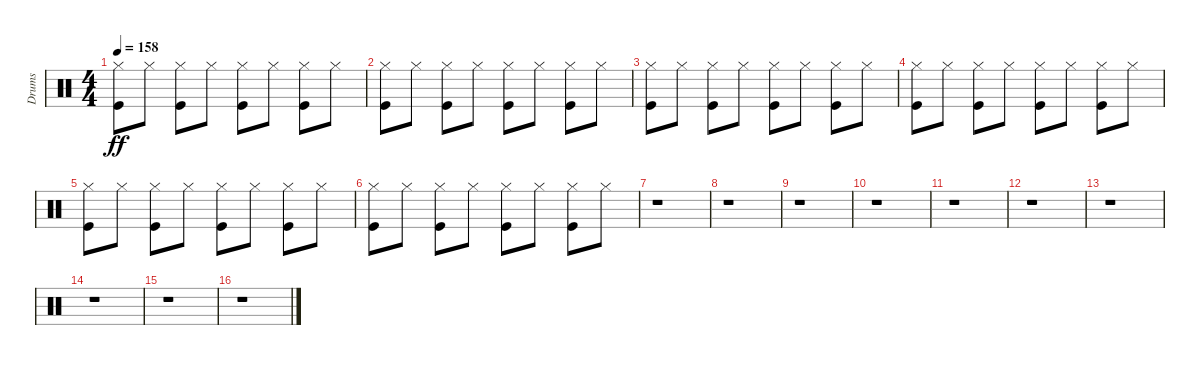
\track ("Drums" "Drums") {instrument percussion}
\staff {score}
\articulation defaults
\ts (4 4)
\tempo 158
\clef neutral
\ks c
("Kick (hit)" "Hi-Hat (closed)").8{dy ff} "Hi-Hat (closed)".8 ("Kick (hit)" "Hi-Hat (closed)").8 "Hi-Hat (closed)".8 ("Kick (hit)" "Hi-Hat (closed)").8 "Hi-Hat (closed)".8 ("Kick (hit)" "Hi-Hat (closed)").8 "Hi-Hat (closed)".8 |
("Kick (hit)" "Hi-Hat (closed)").8 "Hi-Hat (closed)".8 ("Kick (hit)" "Hi-Hat (closed)").8 "Hi-Hat (closed)".8 ("Kick (hit)" "Hi-Hat (closed)").8 "Hi-Hat (closed)".8 ("Kick (hit)" "Hi-Hat (closed)").8 "Hi-Hat (closed)".8 |
("Kick (hit)" "Hi-Hat (closed)").8 "Hi-Hat (closed)".8 ("Kick (hit)" "Hi-Hat (closed)").8 "Hi-Hat (closed)".8 ("Kick (hit)" "Hi-Hat (closed)").8 "Hi-Hat (closed)".8 ("Kick (hit)" "Hi-Hat (closed)").8 "Hi-Hat (closed)".8 |
("Kick (hit)" "Hi-Hat (closed)").8 "Hi-Hat (closed)".8 ("Kick (hit)" "Hi-Hat (closed)").8 "Hi-Hat (closed)".8 ("Kick (hit)" "Hi-Hat (closed)").8 "Hi-Hat (closed)".8 ("Kick (hit)" "Hi-Hat (closed)").8 "Hi-Hat (closed)".8 |
("Kick (hit)" "Hi-Hat (closed)").8 "Hi-Hat (closed)".8 ("Kick (hit)" "Hi-Hat (closed)").8 "Hi-Hat (closed)".8 ("Kick (hit)" "Hi-Hat (closed)").8 "Hi-Hat (closed)".8 ("Kick (hit)" "Hi-Hat (closed)").8 "Hi-Hat (closed)".8 |
("Kick (hit)" "Hi-Hat (closed)").8 "Hi-Hat (closed)".8 ("Kick (hit)" "Hi-Hat (closed)").8 "Hi-Hat (closed)".8 ("Kick (hit)" "Hi-Hat (closed)").8 "Hi-Hat (closed)".8 ("Kick (hit)" "Hi-Hat (closed)").8 "Hi-Hat (closed)".8 |
r.1 |
r.1 |
r.1 |
r.1 |
r.1 |
r.1 |
r.1 |
r.1 |
r.1 |
r.1
